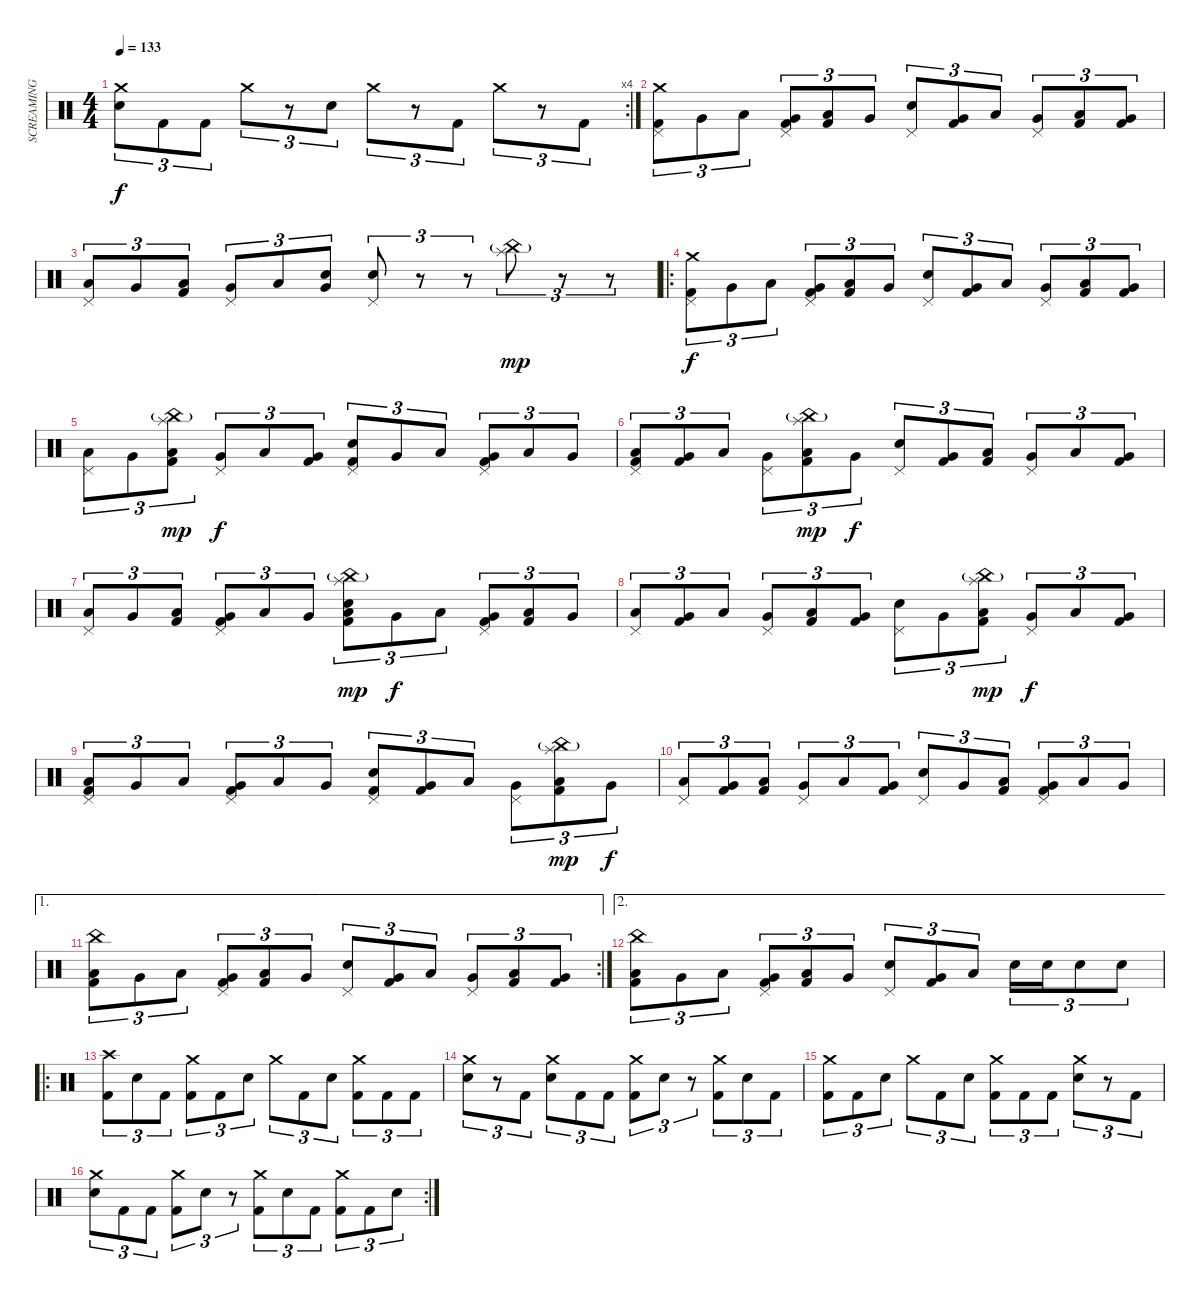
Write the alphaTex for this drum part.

\track ("SCREAMING TOASTER OVEN" "SCREAMING ") {instrument percussion}
\staff {score}
\articulation defaults
\rc 4
\ts (4 4)
\tempo 133
\clef neutral
\ks c
("Crash medium (hit)" "Electric Snare (hit)").8{tu (3 2) dy f} "Kick (hit) 2".8{tu (3 2)} "Kick (hit) 2".8{tu (3 2)} "Crash medium (hit)".8{tu (3 2)} r.8{tu (3 2)} "Electric Snare (hit)".8{tu (3 2)} "Crash medium (hit)".8{tu (3 2)} r.8{tu (3 2)} "Kick (hit) 2".8{tu (3 2)} "Crash medium (hit)".8{tu (3 2)} r.8{tu (3 2)} "Kick (hit) 2".8{tu (3 2)} |
("Crash medium (hit)" "Pedal Hi-Hat (hit)" "Kick (hit) 2").8{tu (3 2)} "Very Low Tom (hit)".8{tu (3 2)} "Low Floor Tom (hit)".8{tu (3 2)} ("Pedal Hi-Hat (hit)" "Very Low Tom (hit)" "Kick (hit) 2").8{tu (3 2)} ("Low Floor Tom (hit)" "Kick (hit) 2").8{tu (3 2)} "Very Low Tom (hit)".8{tu (3 2)} ("Pedal Hi-Hat (hit)" "Electric Snare (hit)").8{tu (3 2)} ("Very Low Tom (hit)" "Kick (hit) 2").8{tu (3 2)} "Low Floor Tom (hit)".8{tu (3 2)} ("Pedal Hi-Hat (hit)" "Very Low Tom (hit)").8{tu (3 2)} ("Low Floor Tom (hit)" "Kick (hit) 2").8{tu (3 2)} ("Very Low Tom (hit)" "Kick (hit) 2").8{tu (3 2)} |
("Pedal Hi-Hat (hit)" "Low Floor Tom (hit)").8{tu (3 2)} "Very Low Tom (hit)".8{tu (3 2)} ("Low Floor Tom (hit)" "Kick (hit) 2").8{tu (3 2)} ("Pedal Hi-Hat (hit)" "Very Low Tom (hit)").8{tu (3 2)} "Low Floor Tom (hit)".8{tu (3 2)} ("Very Low Tom (hit)" "Electric Snare (hit)").8{tu (3 2)} ("Pedal Hi-Hat (hit)" "Electric Snare (hit)").8{tu (3 2)} r.8{tu (3 2)} r.8{tu (3 2)} ("China (hit)"{g} "Splash (hit)").8{tu (3 2) dy mp} r.8{tu (3 2)} r.8{tu (3 2)} |
\ro
("Crash medium (hit)" "Pedal Hi-Hat (hit)" "Kick (hit) 2").8{tu (3 2) dy f} "Very Low Tom (hit)".8{tu (3 2)} "Low Floor Tom (hit)".8{tu (3 2)} ("Pedal Hi-Hat (hit)" "Very Low Tom (hit)" "Kick (hit) 2").8{tu (3 2)} ("Low Floor Tom (hit)" "Kick (hit) 2").8{tu (3 2)} "Very Low Tom (hit)".8{tu (3 2)} ("Pedal Hi-Hat (hit)" "Electric Snare (hit)").8{tu (3 2)} ("Very Low Tom (hit)" "Kick (hit) 2").8{tu (3 2)} "Low Floor Tom (hit)".8{tu (3 2)} ("Pedal Hi-Hat (hit)" "Very Low Tom (hit)").8{tu (3 2)} ("Low Floor Tom (hit)" "Kick (hit) 2").8{tu (3 2)} ("Very Low Tom (hit)" "Kick (hit) 2").8{tu (3 2)} |
("Pedal Hi-Hat (hit)" "Low Floor Tom (hit)").8{tu (3 2)} "Very Low Tom (hit)".8{tu (3 2)} ("China (hit)"{g} "Splash (hit)" "Low Floor Tom (hit)" "Kick (hit) 2").8{tu (3 2) dy mp} ("Pedal Hi-Hat (hit)" "Very Low Tom (hit)").8{tu (3 2) dy f} "Low Floor Tom (hit)".8{tu (3 2)} ("Very Low Tom (hit)" "Kick (hit) 2").8{tu (3 2)} ("Pedal Hi-Hat (hit)" "Electric Snare (hit)" "Kick (hit) 2").8{tu (3 2)} "Very Low Tom (hit)".8{tu (3 2)} "Low Floor Tom (hit)".8{tu (3 2)} ("Pedal Hi-Hat (hit)" "Very Low Tom (hit)" "Kick (hit) 2").8{tu (3 2)} "Low Floor Tom (hit)".8{tu (3 2)} "Very Low Tom (hit)".8{tu (3 2)} |
("Pedal Hi-Hat (hit)" "Low Floor Tom (hit)" "Kick (hit) 2").8{tu (3 2)} ("Very Low Tom (hit)" "Kick (hit) 2").8{tu (3 2)} "Low Floor Tom (hit)".8{tu (3 2)} ("Pedal Hi-Hat (hit)" "Very Low Tom (hit)").8{tu (3 2)} ("China (hit)"{g} "Splash (hit)" "Low Floor Tom (hit)" "Kick (hit) 2").8{tu (3 2) dy mp} "Very Low Tom (hit)".8{tu (3 2) dy f} ("Pedal Hi-Hat (hit)" "Electric Snare (hit)").8{tu (3 2)} ("Very Low Tom (hit)" "Kick (hit) 2").8{tu (3 2)} ("Low Floor Tom (hit)" "Kick (hit) 2").8{tu (3 2)} ("Pedal Hi-Hat (hit)" "Very Low Tom (hit)").8{tu (3 2)} "Low Floor Tom (hit)".8{tu (3 2)} ("Very Low Tom (hit)" "Kick (hit) 2").8{tu (3 2)} |
("Pedal Hi-Hat (hit)" "Low Floor Tom (hit)").8{tu (3 2)} "Very Low Tom (hit)".8{tu (3 2)} ("Low Floor Tom (hit)" "Kick (hit) 2").8{tu (3 2)} ("Pedal Hi-Hat (hit)" "Very Low Tom (hit)" "Kick (hit) 2").8{tu (3 2)} "Low Floor Tom (hit)".8{tu (3 2)} "Very Low Tom (hit)".8{tu (3 2)} ("China (hit)"{g} "Splash (hit)" "Electric Snare (hit)" "Low Floor Tom (hit)" "Kick (hit) 2").8{tu (3 2) dy mp} "Very Low Tom (hit)".8{tu (3 2) dy f} "Low Floor Tom (hit)".8{tu (3 2)} ("Pedal Hi-Hat (hit)" "Very Low Tom (hit)" "Kick (hit) 2").8{tu (3 2)} ("Low Floor Tom (hit)" "Kick (hit) 2").8{tu (3 2)} "Very Low Tom (hit)".8{tu (3 2)} |
("Pedal Hi-Hat (hit)" "Low Floor Tom (hit)").8{tu (3 2)} ("Very Low Tom (hit)" "Kick (hit) 2").8{tu (3 2)} "Low Floor Tom (hit)".8{tu (3 2)} ("Pedal Hi-Hat (hit)" "Very Low Tom (hit)").8{tu (3 2)} ("Low Floor Tom (hit)" "Kick (hit) 2").8{tu (3 2)} ("Very Low Tom (hit)" "Kick (hit) 2").8{tu (3 2)} ("Pedal Hi-Hat (hit)" "Electric Snare (hit)").8{tu (3 2)} "Very Low Tom (hit)".8{tu (3 2)} ("China (hit)"{g} "Splash (hit)" "Low Floor Tom (hit)" "Kick (hit) 2").8{tu (3 2) dy mp} ("Pedal Hi-Hat (hit)" "Very Low Tom (hit)").8{tu (3 2) dy f} "Low Floor Tom (hit)".8{tu (3 2)} ("Very Low Tom (hit)" "Kick (hit) 2").8{tu (3 2)} |
("Pedal Hi-Hat (hit)" "Low Floor Tom (hit)" "Kick (hit) 2").8{tu (3 2)} "Very Low Tom (hit)".8{tu (3 2)} "Low Floor Tom (hit)".8{tu (3 2)} ("Pedal Hi-Hat (hit)" "Very Low Tom (hit)" "Kick (hit) 2").8{tu (3 2)} "Low Floor Tom (hit)".8{tu (3 2)} "Very Low Tom (hit)".8{tu (3 2)} ("Pedal Hi-Hat (hit)" "Electric Snare (hit)" "Kick (hit) 2").8{tu (3 2)} ("Very Low Tom (hit)" "Kick (hit) 2").8{tu (3 2)} "Low Floor Tom (hit)".8{tu (3 2)} ("Pedal Hi-Hat (hit)" "Very Low Tom (hit)").8{tu (3 2)} ("China (hit)"{g} "Splash (hit)" "Low Floor Tom (hit)" "Kick (hit) 2").8{tu (3 2) dy mp} "Very Low Tom (hit)".8{tu (3 2) dy f} |
("Pedal Hi-Hat (hit)" "Low Floor Tom (hit)").8{tu (3 2)} ("Very Low Tom (hit)" "Kick (hit) 2").8{tu (3 2)} ("Low Floor Tom (hit)" "Kick (hit) 2").8{tu (3 2)} ("Pedal Hi-Hat (hit)" "Very Low Tom (hit)").8{tu (3 2)} "Low Floor Tom (hit)".8{tu (3 2)} ("Very Low Tom (hit)" "Kick (hit) 2").8{tu (3 2)} ("Pedal Hi-Hat (hit)" "Electric Snare (hit)").8{tu (3 2)} "Very Low Tom (hit)".8{tu (3 2)} ("Low Floor Tom (hit)" "Kick (hit) 2").8{tu (3 2)} ("Pedal Hi-Hat (hit)" "Very Low Tom (hit)" "Kick (hit) 2").8{tu (3 2)} "Low Floor Tom (hit)".8{tu (3 2)} "Very Low Tom (hit)".8{tu (3 2)} |
\ae 1
\rc 2
("China (hit)" "Low Floor Tom (hit)" "Kick (hit) 2").8{tu (3 2)} "Very Low Tom (hit)".8{tu (3 2)} "Low Floor Tom (hit)".8{tu (3 2)} ("Pedal Hi-Hat (hit)" "Very Low Tom (hit)" "Kick (hit) 2").8{tu (3 2)} ("Low Floor Tom (hit)" "Kick (hit) 2").8{tu (3 2)} "Very Low Tom (hit)".8{tu (3 2)} ("Pedal Hi-Hat (hit)" "Electric Snare (hit)").8{tu (3 2)} ("Very Low Tom (hit)" "Kick (hit) 2").8{tu (3 2)} "Low Floor Tom (hit)".8{tu (3 2)} ("Pedal Hi-Hat (hit)" "Very Low Tom (hit)").8{tu (3 2)} ("Low Floor Tom (hit)" "Kick (hit) 2").8{tu (3 2)} ("Very Low Tom (hit)" "Kick (hit) 2").8{tu (3 2)} |
\ae 2
("China (hit)" "Low Floor Tom (hit)" "Kick (hit) 2").8{tu (3 2)} "Very Low Tom (hit)".8{tu (3 2)} "Low Floor Tom (hit)".8{tu (3 2)} ("Pedal Hi-Hat (hit)" "Very Low Tom (hit)" "Kick (hit) 2").8{tu (3 2)} ("Low Floor Tom (hit)" "Kick (hit) 2").8{tu (3 2)} "Very Low Tom (hit)".8{tu (3 2)} ("Pedal Hi-Hat (hit)" "Electric Snare (hit)").8{tu (3 2)} ("Very Low Tom (hit)" "Kick (hit) 2").8{tu (3 2)} "Low Floor Tom (hit)".8{tu (3 2)} "Electric Snare (hit)".16{tu (3 2)} "Electric Snare (hit)".16{tu (3 2)} "Electric Snare (hit)".8{tu (3 2)} "Electric Snare (hit)".8{tu (3 2)} |
\ro
("Crash high (hit)" "Kick (hit) 2").8{tu (3 2)} "Electric Snare (hit)".8{tu (3 2)} "Kick (hit) 2".8{tu (3 2)} ("Crash medium (hit)" "Kick (hit) 2").8{tu (3 2)} "Kick (hit) 2".8{tu (3 2)} "Electric Snare (hit)".8{tu (3 2)} "Crash medium (hit)".8{tu (3 2)} "Kick (hit) 2".8{tu (3 2)} "Electric Snare (hit)".8{tu (3 2)} ("Crash medium (hit)" "Kick (hit) 2").8{tu (3 2)} "Kick (hit) 2".8{tu (3 2)} "Kick (hit) 2".8{tu (3 2)} |
("Crash medium (hit)" "Electric Snare (hit)").8{tu (3 2)} r.8{tu (3 2)} "Kick (hit) 2".8{tu (3 2)} ("Crash medium (hit)" "Electric Snare (hit)").8{tu (3 2)} "Kick (hit) 2".8{tu (3 2)} "Kick (hit) 2".8{tu (3 2)} ("Crash medium (hit)" "Kick (hit) 2").8{tu (3 2)} "Electric Snare (hit)".8{tu (3 2)} r.8{tu (3 2)} ("Crash medium (hit)" "Kick (hit) 2").8{tu (3 2)} "Electric Snare (hit)".8{tu (3 2)} "Kick (hit) 2".8{tu (3 2)} |
("Crash medium (hit)" "Kick (hit) 2").8{tu (3 2)} "Kick (hit) 2".8{tu (3 2)} "Electric Snare (hit)".8{tu (3 2)} "Crash medium (hit)".8{tu (3 2)} "Kick (hit) 2".8{tu (3 2)} "Electric Snare (hit)".8{tu (3 2)} ("Crash medium (hit)" "Kick (hit) 2").8{tu (3 2)} "Kick (hit) 2".8{tu (3 2)} "Kick (hit) 2".8{tu (3 2)} ("Crash medium (hit)" "Electric Snare (hit)").8{tu (3 2)} r.8{tu (3 2)} "Kick (hit) 2".8{tu (3 2)} |
\rc 2
("Crash medium (hit)" "Electric Snare (hit)").8{tu (3 2)} "Kick (hit) 2".8{tu (3 2)} "Kick (hit) 2".8{tu (3 2)} ("Crash medium (hit)" "Kick (hit) 2").8{tu (3 2)} "Electric Snare (hit)".8{tu (3 2)} r.8{tu (3 2)} ("Crash medium (hit)" "Kick (hit) 2").8{tu (3 2)} "Electric Snare (hit)".8{tu (3 2)} "Kick (hit) 2".8{tu (3 2)} ("Crash medium (hit)" "Kick (hit) 2").8{tu (3 2)} "Kick (hit) 2".8{tu (3 2)} "Electric Snare (hit)".8{tu (3 2)}
